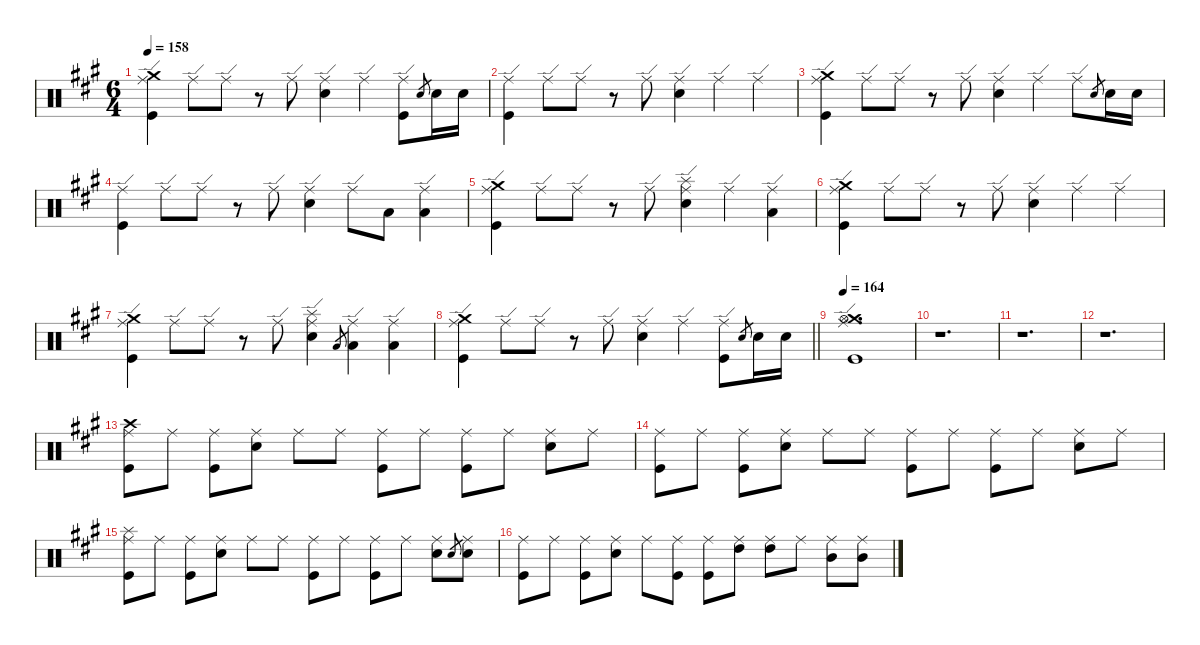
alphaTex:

\defaultSystemsLayout 4
\hideDynamics
\bracketExtendMode nobrackets
\singleTrackTrackNamePolicy hidden
\multiTrackTrackNamePolicy hidden
\firstSystemTrackNameMode fullname
\firstSystemTrackNameOrientation horizontal
\otherSystemsTrackNameOrientation horizontal
\track ("Drums" "drm.") {instrument percussion}
\staff {score}
\articulation defaults
\ts (6 4)
\tempo 158
\clef neutral
\ks f#minor
("Crash medium (hit)"{acc forcenatural} "Ride (edge)"{acc forcenatural} "Kick (hit)"{acc forcenatural}).4{dy f beam Down} "Ride (edge)"{acc forcenatural}.8{dy mf beam Down} "Ride (edge)"{acc forcenatural}.8{dy mp beam Down} r.8{beam Down} "Ride (edge)"{acc forcenatural}.8{dy p beam Down} ("Ride (edge)"{acc forcenatural} "Snare (hit) 2"{acc forcenatural}).4{dy f beam Down} "Ride (edge)"{acc forcenatural}.4{dy mf beam Down} ("Ride (edge)"{acc forcenatural} "Kick (hit)"{acc forcenatural}).8{dy f beam Down} "Electric Snare (hit)"{acc forcenatural}.8{gr dy ppp beam Up} "Snare (hit) 2"{acc forcenatural}.16{dy p beam Down} "Snare (hit) 2"{acc forcenatural}.16{beam Down} |
("Ride (edge)"{acc forcenatural} "Kick (hit)"{acc forcenatural}).4{dy f beam Down} "Ride (edge)"{acc forcenatural}.8{dy mf beam Down} "Ride (edge)"{acc forcenatural}.8{dy mp beam Down} r.8{beam Down} "Ride (edge)"{acc forcenatural}.8{dy p beam Down} ("Ride (edge)"{acc forcenatural} "Snare (hit) 2"{acc forcenatural}).4{dy f beam Down} "Ride (edge)"{acc forcenatural}.4{dy mf beam Down} "Ride (edge)"{acc forcenatural}.4{dy p beam Down} |
("Crash medium (hit)"{acc forcenatural} "Ride (edge)"{acc forcenatural} "Kick (hit)"{acc forcenatural}).4{dy f beam Down} "Ride (edge)"{acc forcenatural}.8{dy mf beam Down} "Ride (edge)"{acc forcenatural}.8{dy mp beam Down} r.8{beam Down} "Ride (edge)"{acc forcenatural}.8{dy p beam Down} ("Ride (edge)"{acc forcenatural} "Snare (hit) 2"{acc forcenatural}).4{dy f beam Down} "Ride (edge)"{acc forcenatural}.4{dy mf beam Down} "Ride (edge)"{acc forcenatural}.8{dy p beam Down} "Electric Snare (hit)"{acc forcenatural}.8{gr dy ppp beam Up} "Snare (hit) 2"{acc forcenatural}.16{dy p beam Down} "Snare (hit) 2"{acc forcenatural}.16{beam Down} |
("Ride (edge)"{acc forcenatural} "Kick (hit)"{acc forcenatural}).4{dy f beam Down} "Ride (edge)"{acc forcenatural}.8{dy mf beam Down} "Ride (edge)"{acc forcenatural}.8{dy mp beam Down} r.8{beam Down} "Ride (edge)"{acc forcenatural}.8{dy p beam Down} ("Ride (edge)"{acc forcenatural} "Snare (hit) 2"{acc forcenatural}).4{dy f beam Down} "Ride (edge)"{acc forcenatural}.8{dy mf beam Down} "Low Tom (hit)"{acc forcenatural}.8{beam Up} ("Ride (edge)"{acc forcenatural} "Low Tom (hit)"{acc forcenatural}).4{dy f beam Down} |
("Crash medium (hit)"{acc forcenatural} "Ride (edge)"{acc forcenatural} "Kick (hit)"{acc forcenatural}).4{beam Down} "Ride (edge)"{acc forcenatural}.8{dy p beam Down} "Ride (edge)"{acc forcenatural}.8{beam Down} r.8{beam Down} "Ride (edge)"{acc forcenatural}.8{beam Down} ("Splash (hit)"{acc forcenatural} "Ride (edge)"{acc forcenatural} "Snare (hit) 2"{acc forcenatural}).4{dy mf beam Down} "Ride (edge)"{acc forcenatural}.4{dy p beam Down} ("Ride (edge)"{acc forcenatural} "Low Tom (hit)"{acc forcenatural}).4{dy f beam Down} |
("Crash medium (hit)"{acc forcenatural} "Ride (edge)"{acc forcenatural} "Kick (hit)"{acc forcenatural}).4{beam Down} "Ride (edge)"{acc forcenatural}.8{dy p beam Down} "Ride (edge)"{acc forcenatural}.8{beam Down} r.8{beam Down} "Ride (edge)"{acc forcenatural}.8{beam Down} ("Ride (edge)"{acc forcenatural} "Snare (hit) 2"{acc forcenatural}).4{dy f beam Down} "Ride (edge)"{acc forcenatural}.4{dy p beam Down} "Ride (edge)"{acc forcenatural}.4{beam Down} |
("Crash medium (hit)"{acc forcenatural} "Ride (edge)"{acc forcenatural} "Kick (hit)"{acc forcenatural}).4{dy f beam Down} "Ride (edge)"{acc forcenatural}.8{dy p beam Down} "Ride (edge)"{acc forcenatural}.8{beam Down} r.8{beam Down} "Ride (edge)"{acc forcenatural}.8{beam Down} ("Splash (hit)"{acc forcenatural} "Ride (edge)"{acc forcenatural} "Snare (hit) 2"{acc forcenatural}).4{dy mf beam Down} "Low Tom (hit)"{acc forcenatural}.8{gr dy mp beam Up} ("Ride (edge)"{acc forcenatural} "Low Tom (hit)"{acc forcenatural}).4{dy f beam Down} ("Ride (edge)"{acc forcenatural} "Low Tom (hit)"{acc forcenatural}).4{beam Down} |
\barLineRight lightlight
("Crash medium (hit)"{acc forcenatural} "Ride (edge)"{acc forcenatural} "Kick (hit)"{acc forcenatural}).4{beam Down} "Ride (edge)"{acc forcenatural}.8{dy p beam Down} "Ride (edge)"{acc forcenatural}.8{beam Down} r.8{beam Down} "Ride (edge)"{acc forcenatural}.8{beam Down} ("Ride (edge)"{acc forcenatural} "Snare (hit) 2"{acc forcenatural}).4{dy f beam Down} "Ride (edge)"{acc forcenatural}.4{dy mf beam Down} ("Ride (edge)"{acc forcenatural} "Kick (hit)"{acc forcenatural}).8{dy f beam Down} "Electric Snare (hit)"{acc forcenatural}.8{gr dy ppp beam Up} "Snare (hit) 2"{acc forcenatural}.16{dy p beam Down} "Snare (hit) 2"{acc forcenatural}.16{beam Down} |
\tempo 164
("Crash medium (hit)"{acc forcenatural} "Hi-Hat (open)"{acc forcenatural} "Ride (edge)"{acc forcenatural} "Kick (hit)"{acc forcenatural}).1{d dy mf beam Down} |
r.1{d beam Down} |
r.1{d beam Down} |
r.1{d beam Down} |
("Crash high (hit)"{acc forcenatural} "Ride (middle)"{acc forcenatural} "Kick (hit)"{acc forcenatural}).8{dy f beam Down} "Ride (middle)"{acc forcenatural}.8{beam Down} ("Ride (middle)"{acc forcenatural} "Kick (hit)"{acc forcenatural}).8{beam Down} ("Ride (middle)"{acc forcenatural} "Snare (hit) 2"{acc forcenatural}).8{beam Down} "Ride (middle)"{acc forcenatural}.8{beam Down} "Ride (middle)"{acc forcenatural}.8{beam Down} ("Ride (middle)"{acc forcenatural} "Kick (hit)"{acc forcenatural}).8{beam Down} "Ride (middle)"{acc forcenatural}.8{beam Down} ("Ride (middle)"{acc forcenatural} "Kick (hit)"{acc forcenatural}).8{beam Down} "Ride (middle)"{acc forcenatural}.8{beam Down} ("Ride (middle)"{acc forcenatural} "Snare (hit) 2"{acc forcenatural}).8{beam Down} "Ride (middle)"{acc forcenatural}.8{beam Down} |
("Ride (middle)"{acc forcenatural} "Kick (hit)"{acc forcenatural}).8{beam Down} "Ride (middle)"{acc forcenatural}.8{beam Down} ("Ride (middle)"{acc forcenatural} "Kick (hit)"{acc forcenatural}).8{beam Down} ("Ride (middle)"{acc forcenatural} "Snare (hit) 2"{acc forcenatural}).8{beam Down} "Ride (middle)"{acc forcenatural}.8{beam Down} "Ride (middle)"{acc forcenatural}.8{beam Down} ("Ride (middle)"{acc forcenatural} "Kick (hit)"{acc forcenatural}).8{beam Down} "Ride (middle)"{acc forcenatural}.8{beam Down} ("Ride (middle)"{acc forcenatural} "Kick (hit)"{acc forcenatural}).8{beam Down} "Ride (middle)"{acc forcenatural}.8{beam Down} ("Ride (middle)"{acc forcenatural} "Snare (hit) 2"{acc forcenatural}).8{beam Down} "Ride (middle)"{acc forcenatural}.8{beam Down} |
("Splash (hit)"{acc forcenatural} "Ride (middle)"{acc forcenatural} "Kick (hit)"{acc forcenatural}).8{beam Down} "Ride (middle)"{acc forcenatural}.8{beam Down} ("Ride (middle)"{acc forcenatural} "Kick (hit)"{acc forcenatural}).8{beam Down} ("Ride (middle)"{acc forcenatural} "Snare (hit) 2"{acc forcenatural}).8{beam Down} "Ride (middle)"{acc forcenatural}.8{beam Down} "Ride (middle)"{acc forcenatural}.8{beam Down} ("Ride (middle)"{acc forcenatural} "Kick (hit)"{acc forcenatural}).8{beam Down} "Ride (middle)"{acc forcenatural}.8{beam Down} ("Ride (middle)"{acc forcenatural} "Kick (hit)"{acc forcenatural}).8{beam Down} "Ride (middle)"{acc forcenatural}.8{beam Down} ("Ride (middle)"{acc forcenatural} "Snare (hit) 2"{acc forcenatural}).8{beam Down} "Electric Snare (hit)"{acc forcenatural}.8{gr dy pp beam Up} ("Ride (middle)"{acc forcenatural} "Snare (hit) 2"{acc forcenatural}).8{dy f beam Down} |
("Ride (middle)"{acc forcenatural} "Kick (hit)"{acc forcenatural}).8{beam Down} "Ride (middle)"{acc forcenatural}.8{beam Down} ("Ride (middle)"{acc forcenatural} "Kick (hit)"{acc forcenatural}).8{beam Down} ("Ride (middle)"{acc forcenatural} "Snare (hit) 2"{acc forcenatural}).8{beam Down} "Ride (middle)"{acc forcenatural}.8{beam Down} ("Ride (middle)"{acc forcenatural} "Kick (hit)"{acc forcenatural}).8{beam Down} ("Ride (middle)"{acc forcenatural} "Kick (hit)"{acc forcenatural}).8{beam Down} ("Ride (middle)"{acc forcenatural} "High Tom (hit)"{acc forcenatural}).8{beam Down} ("Ride (middle)"{acc forcenatural} "High Tom (hit)"{acc forcenatural}).8{beam Down} "Ride (middle)"{acc forcenatural}.8{beam Down} ("Ride (middle)"{acc forcenatural} "Mid Tom (hit)"{acc forcenatural}).8{beam Down} ("Ride (middle)"{acc forcenatural} "Mid Tom (hit)"{acc forcenatural}).8{beam Down}
